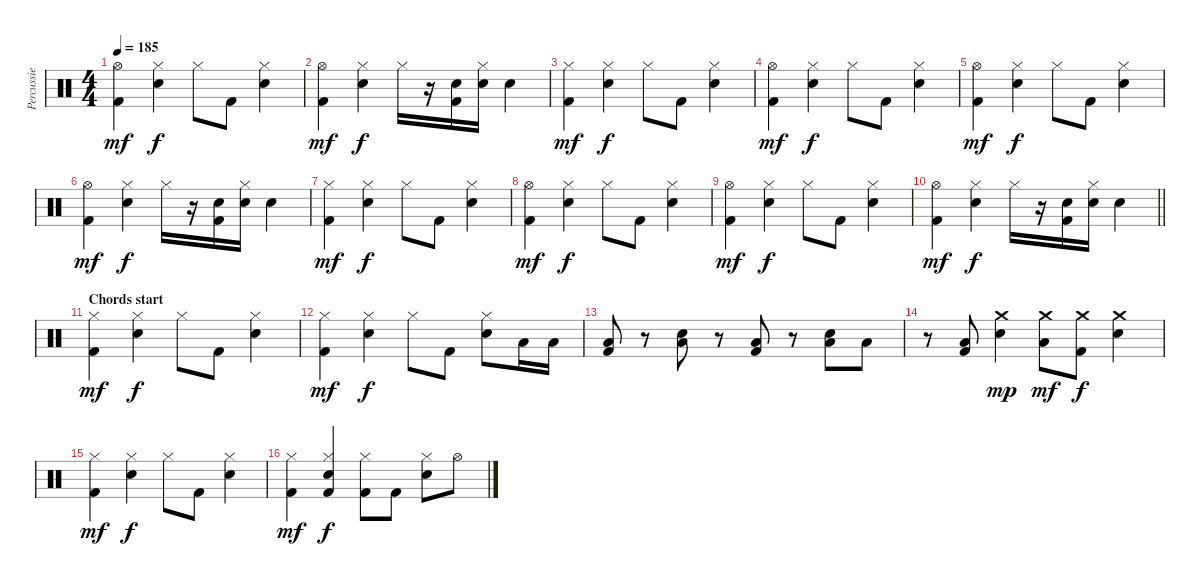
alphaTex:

\track ("Percussie" "Percussie") {instrument percussion}
\staff {score}
\articulation defaults
\ts (4 4)
\tempo 185
\clef neutral
\ks c
("Hi-Hat (open)" "Kick (hit) 2").4{dy mf} ("Hi-Hat (closed)" "Electric Snare (hit)").4{dy f} "Hi-Hat (closed)".8 "Kick (hit) 2".8 ("Hi-Hat (closed)" "Electric Snare (hit)").4 |
("Hi-Hat (open)" "Kick (hit) 2").4{dy mf} ("Hi-Hat (closed)" "Electric Snare (hit)").4{dy f} "Hi-Hat (closed)".16 r.16 ("Electric Snare (hit)" "Kick (hit) 2").16 ("Hi-Hat (closed)" "Electric Snare (hit)").16 "Electric Snare (hit)".4 |
("Hi-Hat (closed)" "Kick (hit) 2").4{dy mf} ("Hi-Hat (closed)" "Electric Snare (hit)").4{dy f} "Hi-Hat (closed)".8 "Kick (hit) 2".8 ("Hi-Hat (closed)" "Electric Snare (hit)").4 |
("Hi-Hat (open)" "Kick (hit) 2").4{dy mf} ("Hi-Hat (closed)" "Electric Snare (hit)").4{dy f} "Hi-Hat (closed)".8 "Kick (hit) 2".8 ("Hi-Hat (closed)" "Electric Snare (hit)").4 |
("Hi-Hat (open)" "Kick (hit) 2").4{dy mf} ("Hi-Hat (closed)" "Electric Snare (hit)").4{dy f} "Hi-Hat (closed)".8 "Kick (hit) 2".8 ("Hi-Hat (closed)" "Electric Snare (hit)").4 |
("Hi-Hat (open)" "Kick (hit) 2").4{dy mf} ("Hi-Hat (closed)" "Electric Snare (hit)").4{dy f} "Hi-Hat (closed)".16 r.16 ("Electric Snare (hit)" "Kick (hit) 2").16 ("Hi-Hat (closed)" "Electric Snare (hit)").16 "Electric Snare (hit)".4 |
("Hi-Hat (closed)" "Kick (hit) 2").4{dy mf} ("Hi-Hat (closed)" "Electric Snare (hit)").4{dy f} "Hi-Hat (closed)".8 "Kick (hit) 2".8 ("Hi-Hat (closed)" "Electric Snare (hit)").4 |
("Hi-Hat (open)" "Kick (hit) 2").4{dy mf} ("Hi-Hat (closed)" "Electric Snare (hit)").4{dy f} "Hi-Hat (closed)".8 "Kick (hit) 2".8 ("Hi-Hat (closed)" "Electric Snare (hit)").4 |
("Hi-Hat (open)" "Kick (hit) 2").4{dy mf} ("Hi-Hat (closed)" "Electric Snare (hit)").4{dy f} "Hi-Hat (closed)".8 "Kick (hit) 2".8 ("Hi-Hat (closed)" "Electric Snare (hit)").4 |
\barLineRight lightlight
("Hi-Hat (open)" "Kick (hit) 2").4{dy mf} ("Hi-Hat (closed)" "Electric Snare (hit)").4{dy f} "Hi-Hat (closed)".16 r.16 ("Electric Snare (hit)" "Kick (hit) 2").16 ("Hi-Hat (closed)" "Electric Snare (hit)").16 "Electric Snare (hit)".4 |
\section ("" "Chords start")
("Hi-Hat (closed)" "Kick (hit) 2").4{dy mf} ("Hi-Hat (closed)" "Electric Snare (hit)").4{dy f} "Hi-Hat (closed)".8 "Kick (hit) 2".8 ("Hi-Hat (closed)" "Electric Snare (hit)").4 |
("Hi-Hat (closed)" "Kick (hit) 2").4{dy mf} ("Hi-Hat (closed)" "Electric Snare (hit)").4{dy f} "Hi-Hat (closed)".8 "Kick (hit) 2".8 ("Hi-Hat (closed)" "Electric Snare (hit)").8 "Low Tom (hit)".16 "Low Tom (hit)".16 |
("Low Tom (hit)" "Kick (hit) 2").8 r.8 ("Electric Snare (hit)" "Low Tom (hit)").8 r.8 ("Low Tom (hit)" "Kick (hit) 2").8 r.8 ("Electric Snare (hit)" "Low Tom (hit)").8 "Low Tom (hit)".8 |
r.8 ("Low Tom (hit)" "Kick (hit) 2").8 ("Crash medium (hit)" "Electric Snare (hit)").4{dy mp} ("Crash medium (hit)" "Low Tom (hit)").8{dy mf} ("Crash medium (hit)" "Kick (hit) 2").8{dy f} ("Crash medium (hit)" "Electric Snare (hit)").4 |
("Hi-Hat (closed)" "Kick (hit) 2").4{dy mf} ("Hi-Hat (closed)" "Electric Snare (hit)").4{dy f} "Hi-Hat (closed)".8 "Kick (hit) 2".8 ("Hi-Hat (closed)" "Electric Snare (hit)").4 |
("Hi-Hat (closed)" "Kick (hit) 2").4{dy mf} ("Hi-Hat (closed)" "Electric Snare (hit)" "Kick (hit) 2").4{dy f} ("Hi-Hat (closed)" "Kick (hit) 2").8 "Kick (hit) 2".8 ("Hi-Hat (closed)" "Electric Snare (hit)").8 "Hi-Hat (open)".8
